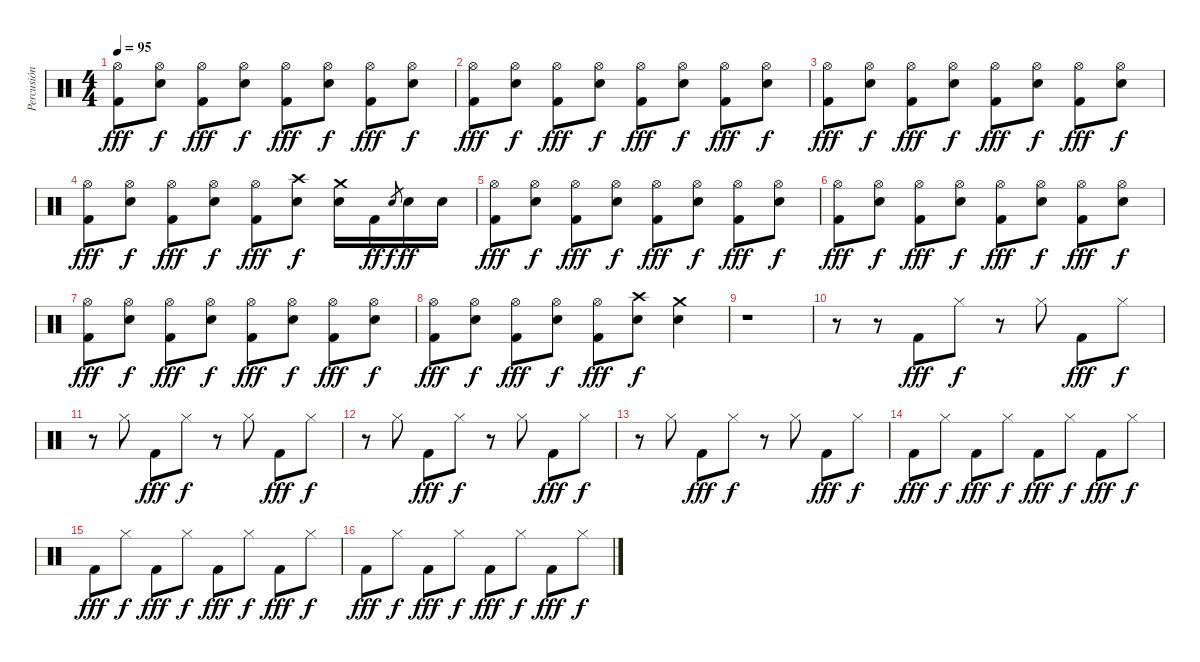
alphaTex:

\track ("Percusión" "Percusión") {instrument percussion}
\staff {score}
\articulation defaults
\ts (4 4)
\tempo 95
\clef neutral
\ks c
("Kick (hit) 2" "Hi-Hat (open)").8{dy fff} ("Electric Snare (hit)" "Hi-Hat (open)").8{dy f} ("Kick (hit) 2" "Hi-Hat (open)").8{dy fff} ("Electric Snare (hit)" "Hi-Hat (open)").8{dy f} ("Kick (hit) 2" "Hi-Hat (open)").8{dy fff} ("Electric Snare (hit)" "Hi-Hat (open)").8{dy f} ("Kick (hit) 2" "Hi-Hat (open)").8{dy fff} ("Electric Snare (hit)" "Hi-Hat (open)").8{dy f} |
("Kick (hit) 2" "Hi-Hat (open)").8{dy fff} ("Electric Snare (hit)" "Hi-Hat (open)").8{dy f} ("Kick (hit) 2" "Hi-Hat (open)").8{dy fff} ("Electric Snare (hit)" "Hi-Hat (open)").8{dy f} ("Kick (hit) 2" "Hi-Hat (open)").8{dy fff} ("Electric Snare (hit)" "Hi-Hat (open)").8{dy f} ("Kick (hit) 2" "Hi-Hat (open)").8{dy fff} ("Electric Snare (hit)" "Hi-Hat (open)").8{dy f} |
("Kick (hit) 2" "Hi-Hat (open)").8{dy fff} ("Electric Snare (hit)" "Hi-Hat (open)").8{dy f} ("Kick (hit) 2" "Hi-Hat (open)").8{dy fff} ("Electric Snare (hit)" "Hi-Hat (open)").8{dy f} ("Kick (hit) 2" "Hi-Hat (open)").8{dy fff} ("Electric Snare (hit)" "Hi-Hat (open)").8{dy f} ("Kick (hit) 2" "Hi-Hat (open)").8{dy fff} ("Electric Snare (hit)" "Hi-Hat (open)").8{dy f} |
("Kick (hit) 2" "Hi-Hat (open)").8{dy fff} ("Electric Snare (hit)" "Hi-Hat (open)").8{dy f} ("Kick (hit) 2" "Hi-Hat (open)").8{dy fff} ("Electric Snare (hit)" "Hi-Hat (open)").8{dy f} ("Kick (hit) 2" "Hi-Hat (open)").8{dy fff} ("Electric Snare (hit)" "Crash high (hit)").8{dy f} ("Electric Snare (hit)" "Crash medium (hit)").16 "Kick (hit) 2".16{dy ff} "Electric Snare (hit)".8{gr dy f} "Electric Snare (hit)".16{dy ff} "Electric Snare (hit)".16 |
("Kick (hit) 2" "Hi-Hat (open)").8{dy fff} ("Electric Snare (hit)" "Hi-Hat (open)").8{dy f} ("Kick (hit) 2" "Hi-Hat (open)").8{dy fff} ("Electric Snare (hit)" "Hi-Hat (open)").8{dy f} ("Kick (hit) 2" "Hi-Hat (open)").8{dy fff} ("Electric Snare (hit)" "Hi-Hat (open)").8{dy f} ("Kick (hit) 2" "Hi-Hat (open)").8{dy fff} ("Electric Snare (hit)" "Hi-Hat (open)").8{dy f} |
("Kick (hit) 2" "Hi-Hat (open)").8{dy fff} ("Electric Snare (hit)" "Hi-Hat (open)").8{dy f} ("Kick (hit) 2" "Hi-Hat (open)").8{dy fff} ("Electric Snare (hit)" "Hi-Hat (open)").8{dy f} ("Kick (hit) 2" "Hi-Hat (open)").8{dy fff} ("Electric Snare (hit)" "Hi-Hat (open)").8{dy f} ("Kick (hit) 2" "Hi-Hat (open)").8{dy fff} ("Electric Snare (hit)" "Hi-Hat (open)").8{dy f} |
("Kick (hit) 2" "Hi-Hat (open)").8{dy fff} ("Electric Snare (hit)" "Hi-Hat (open)").8{dy f} ("Kick (hit) 2" "Hi-Hat (open)").8{dy fff} ("Electric Snare (hit)" "Hi-Hat (open)").8{dy f} ("Kick (hit) 2" "Hi-Hat (open)").8{dy fff} ("Electric Snare (hit)" "Hi-Hat (open)").8{dy f} ("Kick (hit) 2" "Hi-Hat (open)").8{dy fff} ("Electric Snare (hit)" "Hi-Hat (open)").8{dy f} |
("Kick (hit) 2" "Hi-Hat (open)").8{dy fff} ("Electric Snare (hit)" "Hi-Hat (open)").8{dy f} ("Kick (hit) 2" "Hi-Hat (open)").8{dy fff} ("Electric Snare (hit)" "Hi-Hat (open)").8{dy f} ("Kick (hit) 2" "Hi-Hat (open)").8{dy fff} ("Electric Snare (hit)" "Crash high (hit)").8{dy f} ("Electric Snare (hit)" "Crash medium (hit)").4 |
r.1 |
r.8 r.8 "Kick (hit) 2".8{dy fff} "Hi-Hat (closed)".8{dy f} r.8 "Hi-Hat (closed)".8 "Kick (hit) 2".8{dy fff} "Hi-Hat (closed)".8{dy f} |
r.8 "Hi-Hat (closed)".8 "Kick (hit) 2".8{dy fff} "Hi-Hat (closed)".8{dy f} r.8 "Hi-Hat (closed)".8 "Kick (hit) 2".8{dy fff} "Hi-Hat (closed)".8{dy f} |
r.8 "Hi-Hat (closed)".8 "Kick (hit) 2".8{dy fff} "Hi-Hat (closed)".8{dy f} r.8 "Hi-Hat (closed)".8 "Kick (hit) 2".8{dy fff} "Hi-Hat (closed)".8{dy f} |
r.8 "Hi-Hat (closed)".8 "Kick (hit) 2".8{dy fff} "Hi-Hat (closed)".8{dy f} r.8 "Hi-Hat (closed)".8 "Kick (hit) 2".8{dy fff} "Hi-Hat (closed)".8{dy f} |
"Kick (hit) 2".8{dy fff} "Hi-Hat (closed)".8{dy f} "Kick (hit) 2".8{dy fff} "Hi-Hat (closed)".8{dy f} "Kick (hit) 2".8{dy fff} "Hi-Hat (closed)".8{dy f} "Kick (hit) 2".8{dy fff} "Hi-Hat (closed)".8{dy f} |
"Kick (hit) 2".8{dy fff} "Hi-Hat (closed)".8{dy f} "Kick (hit) 2".8{dy fff} "Hi-Hat (closed)".8{dy f} "Kick (hit) 2".8{dy fff} "Hi-Hat (closed)".8{dy f} "Kick (hit) 2".8{dy fff} "Hi-Hat (closed)".8{dy f} |
"Kick (hit) 2".8{dy fff} "Hi-Hat (closed)".8{dy f} "Kick (hit) 2".8{dy fff} "Hi-Hat (closed)".8{dy f} "Kick (hit) 2".8{dy fff} "Hi-Hat (closed)".8{dy f} "Kick (hit) 2".8{dy fff} "Hi-Hat (closed)".8{dy f}
